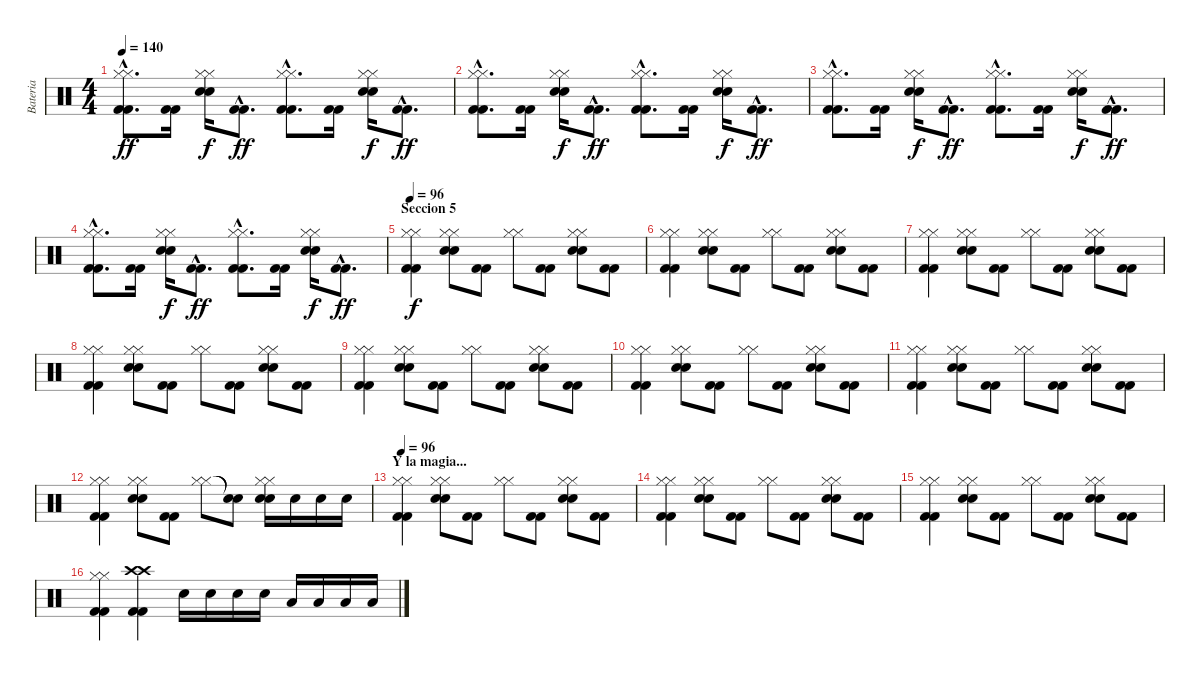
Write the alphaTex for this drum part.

\track ("Bateria" "Bateria") {instrument percussion}
\staff {score}
\articulation defaults
\ts (4 4)
\tempo 140
\clef neutral
\ks c
("Hi-Hat (closed)"{hac} "Hi-Hat (closed)"{hac} "Kick (hit) 2"{hac} "Kick (hit) 2"{hac}).8{d dy ff} ("Kick (hit) 2" "Kick (hit) 2").16 ("Hi-Hat (closed)" "Hi-Hat (closed)" "Snare (hit) 2" "Snare (hit) 2").16{dy f} ("Kick (hit) 2"{hac} "Kick (hit) 2"{hac}).8{d dy ff} ("Hi-Hat (closed)"{hac} "Hi-Hat (closed)"{hac} "Kick (hit) 2"{hac} "Kick (hit) 2"{hac}).8{d} ("Kick (hit) 2" "Kick (hit) 2").16 ("Hi-Hat (closed)" "Hi-Hat (closed)" "Snare (hit) 2" "Snare (hit) 2").16{dy f} ("Kick (hit) 2"{hac} "Kick (hit) 2"{hac}).8{d dy ff} |
("Hi-Hat (closed)"{hac} "Hi-Hat (closed)"{hac} "Kick (hit) 2"{hac} "Kick (hit) 2"{hac}).8{d} ("Kick (hit) 2" "Kick (hit) 2").16 ("Hi-Hat (closed)" "Hi-Hat (closed)" "Snare (hit) 2" "Snare (hit) 2").16{dy f} ("Kick (hit) 2"{hac} "Kick (hit) 2"{hac}).8{d dy ff} ("Hi-Hat (closed)"{hac} "Hi-Hat (closed)"{hac} "Kick (hit) 2"{hac} "Kick (hit) 2"{hac}).8{d} ("Kick (hit) 2" "Kick (hit) 2").16 ("Hi-Hat (closed)" "Hi-Hat (closed)" "Snare (hit) 2" "Snare (hit) 2").16{dy f} ("Kick (hit) 2"{hac} "Kick (hit) 2"{hac}).8{d dy ff} |
("Hi-Hat (closed)"{hac} "Hi-Hat (closed)"{hac} "Kick (hit) 2"{hac} "Kick (hit) 2"{hac}).8{d} ("Kick (hit) 2" "Kick (hit) 2").16 ("Hi-Hat (closed)" "Hi-Hat (closed)" "Snare (hit) 2" "Snare (hit) 2").16{dy f} ("Kick (hit) 2"{hac} "Kick (hit) 2"{hac}).8{d dy ff} ("Hi-Hat (closed)"{hac} "Hi-Hat (closed)"{hac} "Kick (hit) 2"{hac} "Kick (hit) 2"{hac}).8{d} ("Kick (hit) 2" "Kick (hit) 2").16 ("Hi-Hat (closed)" "Hi-Hat (closed)" "Snare (hit) 2" "Snare (hit) 2").16{dy f} ("Kick (hit) 2"{hac} "Kick (hit) 2"{hac}).8{d dy ff} |
("Hi-Hat (closed)"{hac} "Hi-Hat (closed)"{hac} "Kick (hit) 2"{hac} "Kick (hit) 2"{hac}).8{d} ("Kick (hit) 2" "Kick (hit) 2").16 ("Hi-Hat (closed)" "Hi-Hat (closed)" "Snare (hit) 2" "Snare (hit) 2").16{dy f} ("Kick (hit) 2"{hac} "Kick (hit) 2"{hac}).8{d dy ff} ("Hi-Hat (closed)"{hac} "Hi-Hat (closed)"{hac} "Kick (hit) 2"{hac} "Kick (hit) 2"{hac}).8{d} ("Kick (hit) 2" "Kick (hit) 2").16 ("Hi-Hat (closed)" "Hi-Hat (closed)" "Snare (hit) 2" "Snare (hit) 2").16{dy f} ("Kick (hit) 2"{hac} "Kick (hit) 2"{hac}).8{d dy ff} |
\section ("" "Seccion 5")
\tempo 96
("Hi-Hat (closed)" "Hi-Hat (closed)" "Kick (hit) 2" "Kick (hit) 2").4{dy f} ("Hi-Hat (closed)" "Hi-Hat (closed)" "Snare (hit) 2" "Snare (hit) 2").8 ("Kick (hit) 2" "Kick (hit) 2").8 ("Hi-Hat (closed)" "Hi-Hat (closed)").8 ("Kick (hit) 2" "Kick (hit) 2").8 ("Hi-Hat (closed)" "Hi-Hat (closed)" "Snare (hit) 2" "Snare (hit) 2").8 ("Kick (hit) 2" "Kick (hit) 2").8 |
("Hi-Hat (closed)" "Hi-Hat (closed)" "Kick (hit) 2" "Kick (hit) 2").4 ("Hi-Hat (closed)" "Hi-Hat (closed)" "Snare (hit) 2" "Snare (hit) 2").8 ("Kick (hit) 2" "Kick (hit) 2").8 ("Hi-Hat (closed)" "Hi-Hat (closed)").8 ("Kick (hit) 2" "Kick (hit) 2").8 ("Hi-Hat (closed)" "Hi-Hat (closed)" "Snare (hit) 2" "Snare (hit) 2").8 ("Kick (hit) 2" "Kick (hit) 2").8 |
("Hi-Hat (closed)" "Hi-Hat (closed)" "Kick (hit) 2" "Kick (hit) 2").4 ("Hi-Hat (closed)" "Hi-Hat (closed)" "Snare (hit) 2" "Snare (hit) 2").8 ("Kick (hit) 2" "Kick (hit) 2").8 ("Hi-Hat (closed)" "Hi-Hat (closed)").8 ("Kick (hit) 2" "Kick (hit) 2").8 ("Hi-Hat (closed)" "Hi-Hat (closed)" "Snare (hit) 2" "Snare (hit) 2").8 ("Kick (hit) 2" "Kick (hit) 2").8 |
("Hi-Hat (closed)" "Hi-Hat (closed)" "Kick (hit) 2" "Kick (hit) 2").4 ("Hi-Hat (closed)" "Hi-Hat (closed)" "Snare (hit) 2" "Snare (hit) 2").8 ("Kick (hit) 2" "Kick (hit) 2").8 ("Hi-Hat (closed)" "Hi-Hat (closed)").8 ("Kick (hit) 2" "Kick (hit) 2").8 ("Hi-Hat (closed)" "Hi-Hat (closed)" "Snare (hit) 2" "Snare (hit) 2").8 ("Kick (hit) 2" "Kick (hit) 2").8 |
("Hi-Hat (closed)" "Hi-Hat (closed)" "Kick (hit) 2" "Kick (hit) 2").4 ("Hi-Hat (closed)" "Hi-Hat (closed)" "Snare (hit) 2" "Snare (hit) 2").8 ("Kick (hit) 2" "Kick (hit) 2").8 ("Hi-Hat (closed)" "Hi-Hat (closed)").8 ("Kick (hit) 2" "Kick (hit) 2").8 ("Hi-Hat (closed)" "Hi-Hat (closed)" "Snare (hit) 2" "Snare (hit) 2").8 ("Kick (hit) 2" "Kick (hit) 2").8 |
("Hi-Hat (closed)" "Hi-Hat (closed)" "Kick (hit) 2" "Kick (hit) 2").4 ("Hi-Hat (closed)" "Hi-Hat (closed)" "Snare (hit) 2" "Snare (hit) 2").8 ("Kick (hit) 2" "Kick (hit) 2").8 ("Hi-Hat (closed)" "Hi-Hat (closed)").8 ("Kick (hit) 2" "Kick (hit) 2").8 ("Hi-Hat (closed)" "Hi-Hat (closed)" "Snare (hit) 2" "Snare (hit) 2").8 ("Kick (hit) 2" "Kick (hit) 2").8 |
("Hi-Hat (closed)" "Hi-Hat (closed)" "Kick (hit) 2" "Kick (hit) 2").4 ("Hi-Hat (closed)" "Hi-Hat (closed)" "Snare (hit) 2" "Snare (hit) 2").8 ("Kick (hit) 2" "Kick (hit) 2").8 ("Hi-Hat (closed)" "Hi-Hat (closed)").8 ("Kick (hit) 2" "Kick (hit) 2").8 ("Hi-Hat (closed)" "Hi-Hat (closed)" "Snare (hit) 2" "Snare (hit) 2").8 ("Kick (hit) 2" "Kick (hit) 2").8 |
("Hi-Hat (closed)" "Hi-Hat (closed)" "Kick (hit) 2" "Kick (hit) 2").4 ("Hi-Hat (closed)" "Hi-Hat (closed)" "Snare (hit) 2" "Snare (hit) 2").8 ("Kick (hit) 2" "Kick (hit) 2").8 ("Hi-Hat (closed)" "Hi-Hat (closed)").8 ("Snare (hit)"{t} "Snare (hit)"{t}).8 ("Hi-Hat (closed)" "Hi-Hat (closed)" "Snare (hit) 2" "Snare (hit) 2").16 "Snare (hit) 2".16 "Snare (hit) 2".16 "Snare (hit) 2".16 |
\section ("" "Y la magia...")
\tempo 96
("Hi-Hat (closed)" "Hi-Hat (closed)" "Kick (hit) 2" "Kick (hit) 2").4 ("Hi-Hat (closed)" "Hi-Hat (closed)" "Snare (hit) 2" "Snare (hit) 2").8 ("Kick (hit) 2" "Kick (hit) 2").8 ("Hi-Hat (closed)" "Hi-Hat (closed)").8 ("Kick (hit) 2" "Kick (hit) 2").8 ("Hi-Hat (closed)" "Hi-Hat (closed)" "Snare (hit) 2" "Snare (hit) 2").8 ("Kick (hit) 2" "Kick (hit) 2").8 |
("Hi-Hat (closed)" "Hi-Hat (closed)" "Kick (hit) 2" "Kick (hit) 2").4 ("Hi-Hat (closed)" "Hi-Hat (closed)" "Snare (hit) 2" "Snare (hit) 2").8 ("Kick (hit) 2" "Kick (hit) 2").8 ("Hi-Hat (closed)" "Hi-Hat (closed)").8 ("Kick (hit) 2" "Kick (hit) 2").8 ("Hi-Hat (closed)" "Hi-Hat (closed)" "Snare (hit) 2" "Snare (hit) 2").8 ("Kick (hit) 2" "Kick (hit) 2").8 |
("Hi-Hat (closed)" "Hi-Hat (closed)" "Kick (hit) 2" "Kick (hit) 2").4 ("Hi-Hat (closed)" "Hi-Hat (closed)" "Snare (hit) 2" "Snare (hit) 2").8 ("Kick (hit) 2" "Kick (hit) 2").8 ("Hi-Hat (closed)" "Hi-Hat (closed)").8 ("Kick (hit) 2" "Kick (hit) 2").8 ("Hi-Hat (closed)" "Hi-Hat (closed)" "Snare (hit) 2" "Snare (hit) 2").8 ("Kick (hit) 2" "Kick (hit) 2").8 |
("Hi-Hat (closed)" "Hi-Hat (closed)" "Kick (hit) 2" "Kick (hit) 2").4 ("Crash high (hit)" "Crash high (hit)" "Kick (hit) 2" "Kick (hit) 2").4 "Snare (hit) 2".16 "Snare (hit) 2".16 "Snare (hit) 2".16 "Snare (hit) 2".16 "Low Tom (hit)".16 "Low Tom (hit)".16 "Low Tom (hit)".16 "Low Tom (hit)".16
